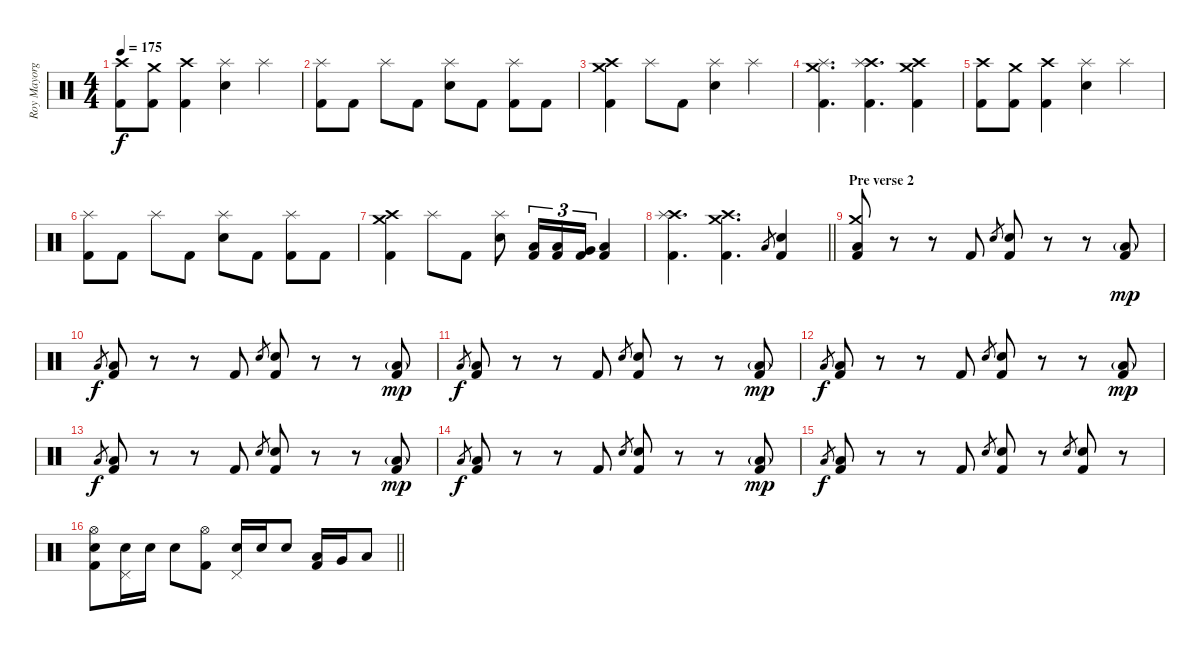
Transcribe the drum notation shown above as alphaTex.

\track ("Roy Mayorga" "Roy Mayorg") {instrument percussion}
\staff {score}
\articulation defaults
\ts (4 4)
\tempo 175
\clef neutral
\ks c
("Crash high (hit)" "Kick (hit) 2").8{dy f} ("Crash medium (hit)" "Kick (hit) 2").8 ("Crash high (hit)" "Kick (hit) 2").4 ("Splash (hit)" "Electric Snare (hit)").4 "Splash (hit)".4 |
("Splash (hit)" "Kick (hit) 2").8 "Kick (hit) 2".8 "Splash (hit)".8 "Kick (hit) 2".8 ("Splash (hit)" "Electric Snare (hit)").8 "Kick (hit) 2".8 ("Splash (hit)" "Kick (hit) 2").8 "Kick (hit) 2".8 |
("Crash high (hit)" "Crash medium (hit)" "Kick (hit) 2").4 "Splash (hit)".8 "Kick (hit) 2".8 ("Splash (hit)" "Electric Snare (hit)").4 "Splash (hit)".4 |
("Crash medium (hit)" "Splash (hit)" "Kick (hit) 2").4{d} ("Crash high (hit)" "Splash (hit)" "Kick (hit) 2").4{d} ("Crash high (hit)" "Crash medium (hit)" "Kick (hit) 2").4 |
("Crash high (hit)" "Kick (hit) 2").8 ("Crash medium (hit)" "Kick (hit) 2").8 ("Crash high (hit)" "Kick (hit) 2").4 ("Splash (hit)" "Electric Snare (hit)").4 "Splash (hit)".4 |
("Splash (hit)" "Kick (hit) 2").8 "Kick (hit) 2".8 "Splash (hit)".8 "Kick (hit) 2".8 ("Splash (hit)" "Electric Snare (hit)").8 "Kick (hit) 2".8 ("Splash (hit)" "Kick (hit) 2").8 "Kick (hit) 2".8 |
("Crash high (hit)" "Crash medium (hit)" "Kick (hit) 2").4 "Splash (hit)".8 "Kick (hit) 2".8 ("Splash (hit)" "Electric Snare (hit)").8 ("Low Tom (hit)" "Kick (hit) 2").16{tu (3 2)} ("Low Tom (hit)" "Kick (hit) 2").16{tu (3 2)} ("Very Low Tom (hit)" "Kick (hit) 2").16{tu (3 2)} ("Low Floor Tom (hit)" "Kick (hit) 2").4 |
\barLineRight lightlight
("Crash high (hit)" "Splash (hit)" "Kick (hit) 2").4{d} ("Crash high (hit)" "Crash medium (hit)" "Kick (hit) 2").4{d} "Low Floor Tom (hit)".8{gr} ("Electric Snare (hit)" "Kick (hit) 2").4 |
\section ("" "Pre verse 2")
("Crash medium (hit)" "Low Floor Tom (hit)" "Kick (hit) 2").8 r.8 r.8 "Kick (hit) 2".8 "Electric Snare (hit)".8{gr} ("Electric Snare (hit)" "Kick (hit) 2").8 r.8 r.8 ("Low Floor Tom (hit)"{g} "Kick (hit) 2").8{dy mp} |
"Low Floor Tom (hit)".8{gr dy f} ("Low Floor Tom (hit)" "Kick (hit) 2").8 r.8 r.8 "Kick (hit) 2".8 "Electric Snare (hit)".8{gr} ("Electric Snare (hit)" "Kick (hit) 2").8 r.8 r.8 ("Low Floor Tom (hit)"{g} "Kick (hit) 2").8{dy mp} |
"Low Floor Tom (hit)".8{gr dy f} ("Low Floor Tom (hit)" "Kick (hit) 2").8 r.8 r.8 "Kick (hit) 2".8 "Electric Snare (hit)".8{gr} ("Electric Snare (hit)" "Kick (hit) 2").8 r.8 r.8 ("Low Floor Tom (hit)"{g} "Kick (hit) 2").8{dy mp} |
"Low Floor Tom (hit)".8{gr dy f} ("Low Floor Tom (hit)" "Kick (hit) 2").8 r.8 r.8 "Kick (hit) 2".8 "Electric Snare (hit)".8{gr} ("Electric Snare (hit)" "Kick (hit) 2").8 r.8 r.8 ("Low Floor Tom (hit)"{g} "Kick (hit) 2").8{dy mp} |
"Low Floor Tom (hit)".8{gr dy f} ("Low Floor Tom (hit)" "Kick (hit) 2").8 r.8 r.8 "Kick (hit) 2".8 "Electric Snare (hit)".8{gr} ("Electric Snare (hit)" "Kick (hit) 2").8 r.8 r.8 ("Low Floor Tom (hit)"{g} "Kick (hit) 2").8{dy mp} |
"Low Floor Tom (hit)".8{gr dy f} ("Low Floor Tom (hit)" "Kick (hit) 2").8 r.8 r.8 "Kick (hit) 2".8 "Electric Snare (hit)".8{gr} ("Electric Snare (hit)" "Kick (hit) 2").8 r.8 r.8 ("Low Floor Tom (hit)"{g} "Kick (hit) 2").8{dy mp} |
"Low Floor Tom (hit)".8{gr dy f} ("Low Floor Tom (hit)" "Kick (hit) 2").8 r.8 r.8 "Kick (hit) 2".8 "Electric Snare (hit)".8{gr} ("Electric Snare (hit)" "Kick (hit) 2").8 r.8 "Electric Snare (hit)".8{gr} ("Electric Snare (hit)" "Kick (hit) 2").8 r.8 |
\barLineRight lightlight
("Hi-Hat (open)" "Electric Snare (hit)" "Kick (hit) 2").8 ("Pedal Hi-Hat (hit)" "Electric Snare (hit)").16 "Electric Snare (hit)".16 "Electric Snare (hit)".8 ("Hi-Hat (open)" "Kick (hit) 2").8 ("Pedal Hi-Hat (hit)" "Electric Snare (hit)").16 "Electric Snare (hit)".16 "Electric Snare (hit)".8 ("Low Tom (hit)" "Kick (hit) 2").16 "Very Low Tom (hit)".16 "Low Floor Tom (hit)".8
